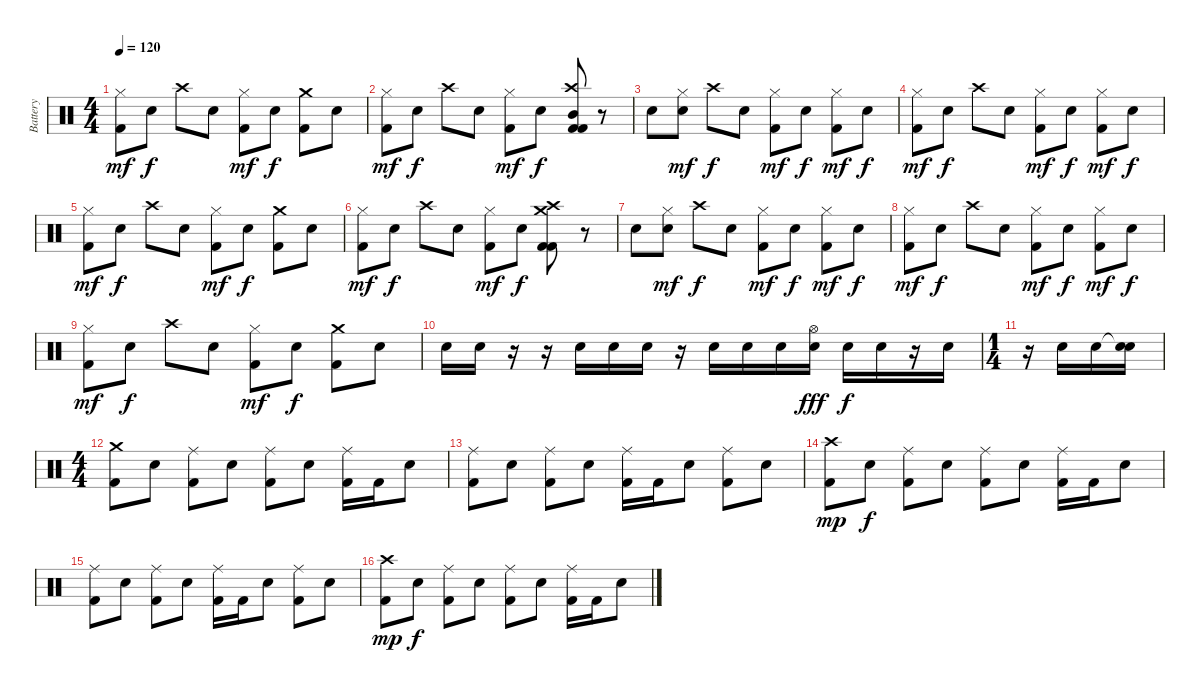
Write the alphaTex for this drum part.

\track ("Battery" "Battery") {instrument percussion}
\staff {score}
\articulation defaults
\ts (4 4)
\tempo 120
\clef neutral
\ks c
("Hi-Hat (closed)" "Kick (hit) 2").8{dy mf} "Electric Snare (hit)".8{dy f} "Crash high (hit)".8 "Electric Snare (hit)".8 ("Hi-Hat (closed)" "Kick (hit) 2").8{dy mf} "Electric Snare (hit)".8{dy f} ("Crash medium (hit)" "Kick (hit) 2").8 "Electric Snare (hit)".8 |
("Hi-Hat (closed)" "Kick (hit) 2").8{dy mf} "Electric Snare (hit)".8{dy f} "Crash high (hit)".8 "Electric Snare (hit)".8 ("Hi-Hat (closed)" "Kick (hit) 2").8{dy mf} "Electric Snare (hit)".8{dy f} ("Crash high (hit)" "Mid Tom (hit)" "Kick (hit) 2" "Kick (hit) 2").8 r.8 |
"Electric Snare (hit)".8 ("Hi-Hat (closed)" "Electric Snare (hit)").8{dy mf} "Crash high (hit)".8{dy f} "Electric Snare (hit)".8 ("Hi-Hat (closed)" "Kick (hit) 2").8{dy mf} "Electric Snare (hit)".8{dy f} ("Hi-Hat (closed)" "Kick (hit) 2").8{dy mf} "Electric Snare (hit)".8{dy f} |
("Hi-Hat (closed)" "Kick (hit) 2").8{dy mf} "Electric Snare (hit)".8{dy f} "Crash high (hit)".8 "Electric Snare (hit)".8 ("Hi-Hat (closed)" "Kick (hit) 2").8{dy mf} "Electric Snare (hit)".8{dy f} ("Hi-Hat (closed)" "Kick (hit) 2").8{dy mf} "Electric Snare (hit)".8{dy f} |
("Hi-Hat (closed)" "Kick (hit) 2").8{dy mf} "Electric Snare (hit)".8{dy f} "Crash high (hit)".8 "Electric Snare (hit)".8 ("Hi-Hat (closed)" "Kick (hit) 2").8{dy mf} "Electric Snare (hit)".8{dy f} ("Crash medium (hit)" "Kick (hit) 2").8 "Electric Snare (hit)".8 |
("Hi-Hat (closed)" "Kick (hit) 2").8{dy mf} "Electric Snare (hit)".8{dy f} "Crash high (hit)".8 "Electric Snare (hit)".8 ("Hi-Hat (closed)" "Kick (hit) 2").8{dy mf} "Electric Snare (hit)".8{dy f} ("Crash high (hit)" "Crash medium (hit)" "Kick (hit) 2" "Kick (hit) 2").8 r.8 |
"Electric Snare (hit)".8 ("Hi-Hat (closed)" "Electric Snare (hit)").8{dy mf} "Crash high (hit)".8{dy f} "Electric Snare (hit)".8 ("Hi-Hat (closed)" "Kick (hit) 2").8{dy mf} "Electric Snare (hit)".8{dy f} ("Hi-Hat (closed)" "Kick (hit) 2").8{dy mf} "Electric Snare (hit)".8{dy f} |
("Hi-Hat (closed)" "Kick (hit) 2").8{dy mf} "Electric Snare (hit)".8{dy f} "Crash high (hit)".8 "Electric Snare (hit)".8 ("Hi-Hat (closed)" "Kick (hit) 2").8{dy mf} "Electric Snare (hit)".8{dy f} ("Hi-Hat (closed)" "Kick (hit) 2").8{dy mf} "Electric Snare (hit)".8{dy f} |
("Hi-Hat (closed)" "Kick (hit) 2").8{dy mf} "Electric Snare (hit)".8{dy f} "Crash high (hit)".8 "Electric Snare (hit)".8 ("Hi-Hat (closed)" "Kick (hit) 2").8{dy mf} "Electric Snare (hit)".8{dy f} ("Crash medium (hit)" "Kick (hit) 2").8 "Electric Snare (hit)".8 |
"Electric Snare (hit)".16 "Electric Snare (hit)".16 r.16 r.16 "Electric Snare (hit)".16 "Electric Snare (hit)".16 "Electric Snare (hit)".16 r.16 "Electric Snare (hit)".16 "Electric Snare (hit)".16 "Electric Snare (hit)".16 ("Hi-Hat (open)" "Electric Snare (hit)").16{dy fff} "Electric Snare (hit)".16{dy f} "Electric Snare (hit)".16 r.16 "Electric Snare (hit)".16 |
\ts (1 4)
r.16 "Electric Snare (hit)".16 "Electric Snare (hit)".16 ("Snare (hit)"{t} "Electric Snare (hit)").16 |
\ts (4 4)
("Crash medium (hit)" "Kick (hit) 2").8 "Electric Snare (hit)".8 ("Ride (middle)" "Kick (hit) 2").8 "Electric Snare (hit)".8 ("Ride (middle)" "Kick (hit) 2").8 "Electric Snare (hit)".8 ("Ride (middle)" "Kick (hit) 2").16 "Kick (hit) 2".16 "Electric Snare (hit)".8 |
("Ride (middle)" "Kick (hit) 2").8 "Electric Snare (hit)".8 ("Ride (middle)" "Kick (hit) 2").8 "Electric Snare (hit)".8 ("Ride (middle)" "Kick (hit) 2").16 "Kick (hit) 2".16 "Electric Snare (hit)".8 ("Ride (middle)" "Kick (hit) 2").8 "Electric Snare (hit)".8 |
("Crash high (hit)" "Kick (hit) 2").8{dy mp} "Electric Snare (hit)".8{dy f} ("Ride (middle)" "Kick (hit) 2").8 "Electric Snare (hit)".8 ("Ride (middle)" "Kick (hit) 2").8 "Electric Snare (hit)".8 ("Ride (middle)" "Kick (hit) 2").16 "Kick (hit) 2".16 "Electric Snare (hit)".8 |
("Ride (middle)" "Kick (hit) 2").8 "Electric Snare (hit)".8 ("Ride (middle)" "Kick (hit) 2").8 "Electric Snare (hit)".8 ("Ride (middle)" "Kick (hit) 2").16 "Kick (hit) 2".16 "Electric Snare (hit)".8 ("Ride (middle)" "Kick (hit) 2").8 "Electric Snare (hit)".8 |
("Crash high (hit)" "Kick (hit) 2").8{dy mp} "Electric Snare (hit)".8{dy f} ("Ride (middle)" "Kick (hit) 2").8 "Electric Snare (hit)".8 ("Ride (middle)" "Kick (hit) 2").8 "Electric Snare (hit)".8 ("Ride (middle)" "Kick (hit) 2").16 "Kick (hit) 2".16 "Electric Snare (hit)".8
